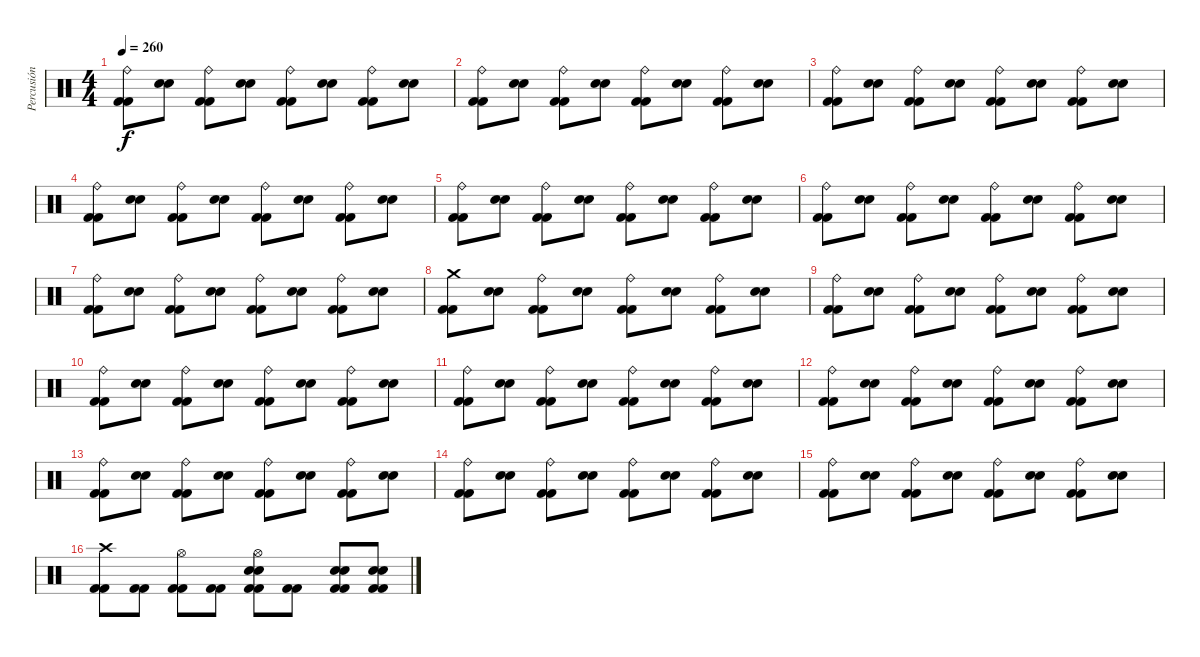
\track ("Percusión" "Percusión") {instrument percussion}
\staff {score}
\articulation defaults
\ts (4 4)
\tempo 260
\clef neutral
\ks c
("Kick (hit) 2" "Kick (hit) 2" "Ride (bell)").8{dy f} ("Electric Snare (hit)" "Electric Snare (hit)").8 ("Kick (hit) 2" "Kick (hit) 2" "Ride (bell)").8 ("Electric Snare (hit)" "Electric Snare (hit)").8 ("Kick (hit) 2" "Kick (hit) 2" "Ride (bell)").8 ("Electric Snare (hit)" "Electric Snare (hit)").8 ("Kick (hit) 2" "Kick (hit) 2" "Ride (bell)").8 ("Electric Snare (hit)" "Electric Snare (hit)").8 |
("Kick (hit) 2" "Kick (hit) 2" "Ride (bell)").8 ("Electric Snare (hit)" "Electric Snare (hit)").8 ("Kick (hit) 2" "Kick (hit) 2" "Ride (bell)").8 ("Electric Snare (hit)" "Electric Snare (hit)").8 ("Kick (hit) 2" "Kick (hit) 2" "Ride (bell)").8 ("Electric Snare (hit)" "Electric Snare (hit)").8 ("Kick (hit) 2" "Kick (hit) 2" "Ride (bell)").8 ("Electric Snare (hit)" "Electric Snare (hit)").8 |
("Kick (hit) 2" "Kick (hit) 2" "Ride (bell)").8 ("Electric Snare (hit)" "Electric Snare (hit)").8 ("Kick (hit) 2" "Kick (hit) 2" "Ride (bell)").8 ("Electric Snare (hit)" "Electric Snare (hit)").8 ("Kick (hit) 2" "Kick (hit) 2" "Ride (bell)").8 ("Electric Snare (hit)" "Electric Snare (hit)").8 ("Kick (hit) 2" "Kick (hit) 2" "Ride (bell)").8 ("Electric Snare (hit)" "Electric Snare (hit)").8 |
("Kick (hit) 2" "Kick (hit) 2" "Ride (bell)").8 ("Electric Snare (hit)" "Electric Snare (hit)").8 ("Kick (hit) 2" "Kick (hit) 2" "Ride (bell)").8 ("Electric Snare (hit)" "Electric Snare (hit)").8 ("Kick (hit) 2" "Kick (hit) 2" "Ride (bell)").8 ("Electric Snare (hit)" "Electric Snare (hit)").8 ("Kick (hit) 2" "Kick (hit) 2" "Ride (bell)").8 ("Electric Snare (hit)" "Electric Snare (hit)").8 |
("Kick (hit) 2" "Kick (hit) 2" "Ride (bell)").8 ("Electric Snare (hit)" "Electric Snare (hit)").8 ("Kick (hit) 2" "Kick (hit) 2" "Ride (bell)").8 ("Electric Snare (hit)" "Electric Snare (hit)").8 ("Kick (hit) 2" "Kick (hit) 2" "Ride (bell)").8 ("Electric Snare (hit)" "Electric Snare (hit)").8 ("Kick (hit) 2" "Kick (hit) 2" "Ride (bell)").8 ("Electric Snare (hit)" "Electric Snare (hit)").8 |
("Kick (hit) 2" "Kick (hit) 2" "Ride (bell)").8 ("Electric Snare (hit)" "Electric Snare (hit)").8 ("Kick (hit) 2" "Kick (hit) 2" "Ride (bell)").8 ("Electric Snare (hit)" "Electric Snare (hit)").8 ("Kick (hit) 2" "Kick (hit) 2" "Ride (bell)").8 ("Electric Snare (hit)" "Electric Snare (hit)").8 ("Kick (hit) 2" "Kick (hit) 2" "Ride (bell)").8 ("Electric Snare (hit)" "Electric Snare (hit)").8 |
("Kick (hit) 2" "Kick (hit) 2" "Ride (bell)").8 ("Electric Snare (hit)" "Electric Snare (hit)").8 ("Kick (hit) 2" "Kick (hit) 2" "Ride (bell)").8 ("Electric Snare (hit)" "Electric Snare (hit)").8 ("Kick (hit) 2" "Kick (hit) 2" "Ride (bell)").8 ("Electric Snare (hit)" "Electric Snare (hit)").8 ("Kick (hit) 2" "Kick (hit) 2" "Ride (bell)").8 ("Electric Snare (hit)" "Electric Snare (hit)").8 |
("Kick (hit) 2" "Kick (hit) 2" "Crash medium (hit)").8 ("Electric Snare (hit)" "Electric Snare (hit)").8 ("Kick (hit) 2" "Kick (hit) 2" "Ride (bell)").8 ("Electric Snare (hit)" "Electric Snare (hit)").8 ("Kick (hit) 2" "Kick (hit) 2" "Ride (bell)").8 ("Electric Snare (hit)" "Electric Snare (hit)").8 ("Kick (hit) 2" "Kick (hit) 2" "Ride (bell)").8 ("Electric Snare (hit)" "Electric Snare (hit)").8 |
("Kick (hit) 2" "Kick (hit) 2" "Ride (bell)").8 ("Electric Snare (hit)" "Electric Snare (hit)").8 ("Kick (hit) 2" "Kick (hit) 2" "Ride (bell)").8 ("Electric Snare (hit)" "Electric Snare (hit)").8 ("Kick (hit) 2" "Kick (hit) 2" "Ride (bell)").8 ("Electric Snare (hit)" "Electric Snare (hit)").8 ("Kick (hit) 2" "Kick (hit) 2" "Ride (bell)").8 ("Electric Snare (hit)" "Electric Snare (hit)").8 |
("Kick (hit) 2" "Kick (hit) 2" "Ride (bell)").8 ("Electric Snare (hit)" "Electric Snare (hit)").8 ("Kick (hit) 2" "Kick (hit) 2" "Ride (bell)").8 ("Electric Snare (hit)" "Electric Snare (hit)").8 ("Kick (hit) 2" "Kick (hit) 2" "Ride (bell)").8 ("Electric Snare (hit)" "Electric Snare (hit)").8 ("Kick (hit) 2" "Kick (hit) 2" "Ride (bell)").8 ("Electric Snare (hit)" "Electric Snare (hit)").8 |
("Kick (hit) 2" "Kick (hit) 2" "Ride (bell)").8 ("Electric Snare (hit)" "Electric Snare (hit)").8 ("Kick (hit) 2" "Kick (hit) 2" "Ride (bell)").8 ("Electric Snare (hit)" "Electric Snare (hit)").8 ("Kick (hit) 2" "Kick (hit) 2" "Ride (bell)").8 ("Electric Snare (hit)" "Electric Snare (hit)").8 ("Kick (hit) 2" "Kick (hit) 2" "Ride (bell)").8 ("Electric Snare (hit)" "Electric Snare (hit)").8 |
("Kick (hit) 2" "Kick (hit) 2" "Ride (bell)").8 ("Electric Snare (hit)" "Electric Snare (hit)").8 ("Kick (hit) 2" "Kick (hit) 2" "Ride (bell)").8 ("Electric Snare (hit)" "Electric Snare (hit)").8 ("Kick (hit) 2" "Kick (hit) 2" "Ride (bell)").8 ("Electric Snare (hit)" "Electric Snare (hit)").8 ("Kick (hit) 2" "Kick (hit) 2" "Ride (bell)").8 ("Electric Snare (hit)" "Electric Snare (hit)").8 |
("Kick (hit) 2" "Kick (hit) 2" "Ride (bell)").8 ("Electric Snare (hit)" "Electric Snare (hit)").8 ("Kick (hit) 2" "Kick (hit) 2" "Ride (bell)").8 ("Electric Snare (hit)" "Electric Snare (hit)").8 ("Kick (hit) 2" "Kick (hit) 2" "Ride (bell)").8 ("Electric Snare (hit)" "Electric Snare (hit)").8 ("Kick (hit) 2" "Kick (hit) 2" "Ride (bell)").8 ("Electric Snare (hit)" "Electric Snare (hit)").8 |
("Kick (hit) 2" "Kick (hit) 2" "Ride (bell)").8 ("Electric Snare (hit)" "Electric Snare (hit)").8 ("Kick (hit) 2" "Kick (hit) 2" "Ride (bell)").8 ("Electric Snare (hit)" "Electric Snare (hit)").8 ("Kick (hit) 2" "Kick (hit) 2" "Ride (bell)").8 ("Electric Snare (hit)" "Electric Snare (hit)").8 ("Kick (hit) 2" "Kick (hit) 2" "Ride (bell)").8 ("Electric Snare (hit)" "Electric Snare (hit)").8 |
("Kick (hit) 2" "Kick (hit) 2" "Ride (bell)").8 ("Electric Snare (hit)" "Electric Snare (hit)").8 ("Kick (hit) 2" "Kick (hit) 2" "Ride (bell)").8 ("Electric Snare (hit)" "Electric Snare (hit)").8 ("Kick (hit) 2" "Kick (hit) 2" "Ride (bell)").8 ("Electric Snare (hit)" "Electric Snare (hit)").8 ("Kick (hit) 2" "Kick (hit) 2" "Ride (bell)").8 ("Electric Snare (hit)" "Electric Snare (hit)").8 |
("Kick (hit) 2" "Kick (hit) 2" "Crash high (hit)").8 ("Kick (hit) 2" "Kick (hit) 2").8 ("Kick (hit) 2" "Kick (hit) 2" "Hi-Hat (open)").8 ("Kick (hit) 2" "Kick (hit) 2").8 ("Kick (hit) 2" "Kick (hit) 2" "Electric Snare (hit)" "Electric Snare (hit)" "Hi-Hat (open)").8 ("Kick (hit) 2" "Kick (hit) 2").8 ("Kick (hit) 2" "Kick (hit) 2" "Electric Snare (hit)" "Electric Snare (hit)").8 ("Kick (hit) 2" "Kick (hit) 2" "Electric Snare (hit)" "Electric Snare (hit)").8
